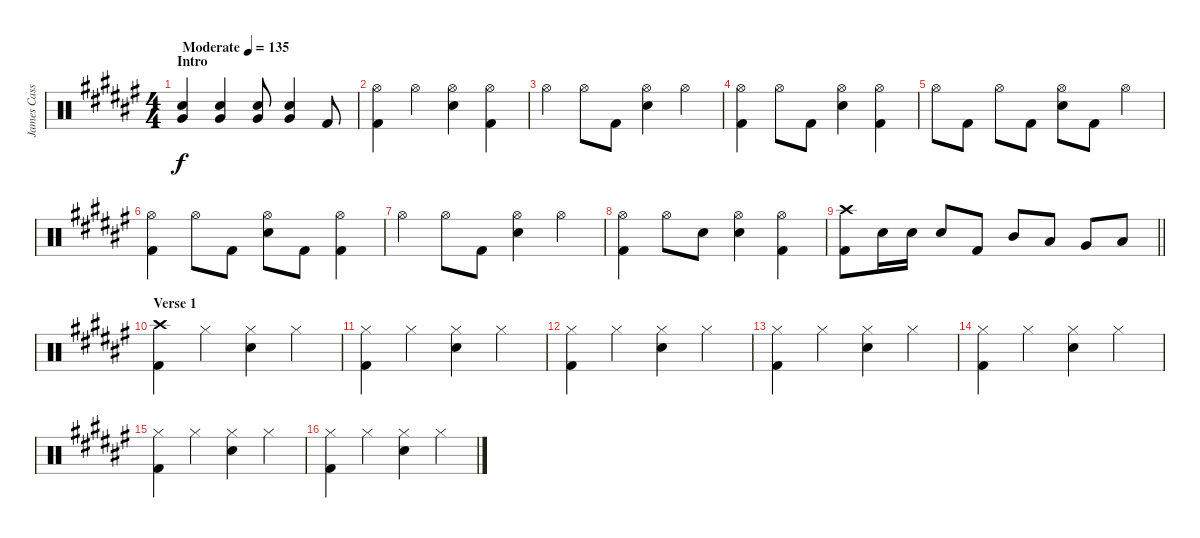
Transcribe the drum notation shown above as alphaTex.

\track ("James Cassells" "James Cass") {instrument percussion}
\staff {score}
\articulation defaults
\ts (4 4)
\section ("" "Intro")
\tempo (135 "Moderate")
\clef neutral
\ks d#minor
("Very Low Tom (hit)" "Electric Snare (hit)").4{dy f} ("Very Low Tom (hit)" "Electric Snare (hit)").4 ("Very Low Tom (hit)" "Electric Snare (hit)").8 ("Very Low Tom (hit)" "Electric Snare (hit)").4 "Kick (hit) 2".8 |
("Hi-Hat (open)" "Kick (hit) 2").4 "Hi-Hat (open)".4 ("Hi-Hat (open)" "Electric Snare (hit)").4 ("Hi-Hat (open)" "Kick (hit) 2").4 |
"Hi-Hat (open)".4 "Hi-Hat (open)".8 "Kick (hit) 2".8 ("Hi-Hat (open)" "Electric Snare (hit)").4 "Hi-Hat (open)".4 |
("Hi-Hat (open)" "Kick (hit) 2").4 "Hi-Hat (open)".8 "Kick (hit) 2".8 ("Hi-Hat (open)" "Electric Snare (hit)").4 ("Hi-Hat (open)" "Kick (hit) 2").4 |
"Hi-Hat (open)".8 "Kick (hit) 2".8 "Hi-Hat (open)".8 "Kick (hit) 2".8 ("Hi-Hat (open)" "Electric Snare (hit)").8 "Kick (hit) 2".8 "Hi-Hat (open)".4 |
("Hi-Hat (open)" "Kick (hit) 2").4 "Hi-Hat (open)".8 "Kick (hit) 2".8 ("Hi-Hat (open)" "Electric Snare (hit)").8 "Kick (hit) 2".8 ("Hi-Hat (open)" "Kick (hit) 2").4 |
"Hi-Hat (open)".4 "Hi-Hat (open)".8 "Kick (hit) 2".8 ("Hi-Hat (open)" "Electric Snare (hit)").4 "Hi-Hat (open)".4 |
("Hi-Hat (open)" "Kick (hit) 2").4 "Hi-Hat (open)".8 "Electric Snare (hit)".8 ("Hi-Hat (open)" "Electric Snare (hit)").4 ("Hi-Hat (open)" "Kick (hit) 2").4 |
\barLineRight lightlight
("Crash high (hit)" "Kick (hit) 2").8 "Electric Snare (hit)".16 "Electric Snare (hit)".16 "Electric Snare (hit)".8 "Kick (hit) 2".8 "Mid Tom (hit)".8 "Low Tom (hit)".8 "Very Low Tom (hit)".8 "Low Floor Tom (hit)".8 |
\section ("" "Verse 1")
("Crash high (hit)" "Kick (hit) 2").4 "Hi-Hat (closed)".4 ("Hi-Hat (closed)" "Electric Snare (hit)").4 "Hi-Hat (closed)".4 |
("Hi-Hat (closed)" "Kick (hit) 2").4 "Hi-Hat (closed)".4 ("Hi-Hat (closed)" "Electric Snare (hit)").4 "Hi-Hat (closed)".4 |
("Hi-Hat (closed)" "Kick (hit) 2").4 "Hi-Hat (closed)".4 ("Hi-Hat (closed)" "Electric Snare (hit)").4 "Hi-Hat (closed)".4 |
("Hi-Hat (closed)" "Kick (hit) 2").4 "Hi-Hat (closed)".4 ("Hi-Hat (closed)" "Electric Snare (hit)").4 "Hi-Hat (closed)".4 |
("Hi-Hat (closed)" "Kick (hit) 2").4 "Hi-Hat (closed)".4 ("Hi-Hat (closed)" "Electric Snare (hit)").4 "Hi-Hat (closed)".4 |
("Hi-Hat (closed)" "Kick (hit) 2").4 "Hi-Hat (closed)".4 ("Hi-Hat (closed)" "Electric Snare (hit)").4 "Hi-Hat (closed)".4 |
("Hi-Hat (closed)" "Kick (hit) 2").4 "Hi-Hat (closed)".4 ("Hi-Hat (closed)" "Electric Snare (hit)").4 "Hi-Hat (closed)".4
